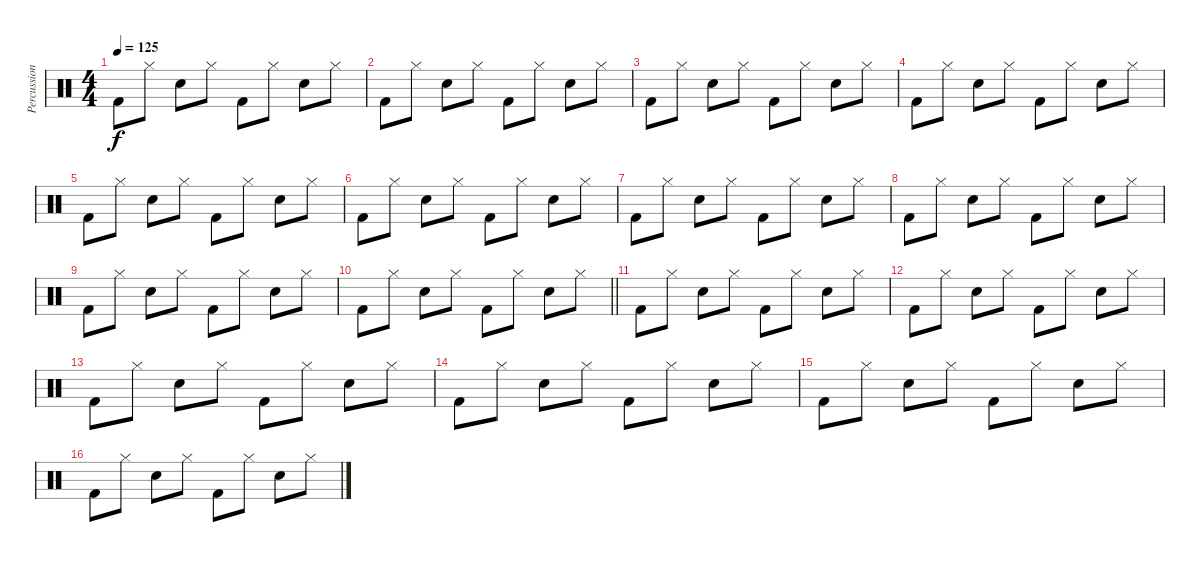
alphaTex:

\track ("Percussion" "Percussion") {instrument percussion}
\staff {score}
\articulation defaults
\ts (4 4)
\tempo 125
\clef neutral
\ks c "Kick (hit) 2".8{dy f} "Hi-Hat (closed)".8 "Snare (hit) 2".8 "Hi-Hat (closed)".8 "Kick (hit) 2".8 "Hi-Hat (closed)".8 "Snare (hit) 2".8 "Hi-Hat (closed)".8
|
"Kick (hit) 2".8 "Hi-Hat (closed)".8 "Snare (hit) 2".8 "Hi-Hat (closed)".8 "Kick (hit) 2".8 "Hi-Hat (closed)".8 "Snare (hit) 2".8 "Hi-Hat (closed)".8 |
"Kick (hit) 2".8 "Hi-Hat (closed)".8 "Snare (hit) 2".8 "Hi-Hat (closed)".8 "Kick (hit) 2".8 "Hi-Hat (closed)".8 "Snare (hit) 2".8 "Hi-Hat (closed)".8 |
"Kick (hit) 2".8 "Hi-Hat (closed)".8 "Snare (hit) 2".8 "Hi-Hat (closed)".8 "Kick (hit) 2".8 "Hi-Hat (closed)".8 "Snare (hit) 2".8 "Hi-Hat (closed)".8 |
"Kick (hit) 2".8 "Hi-Hat (closed)".8 "Snare (hit) 2".8 "Hi-Hat (closed)".8 "Kick (hit) 2".8 "Hi-Hat (closed)".8 "Snare (hit) 2".8 "Hi-Hat (closed)".8 |
"Kick (hit) 2".8 "Hi-Hat (closed)".8 "Snare (hit) 2".8 "Hi-Hat (closed)".8 "Kick (hit) 2".8 "Hi-Hat (closed)".8 "Snare (hit) 2".8 "Hi-Hat (closed)".8 |
"Kick (hit) 2".8 "Hi-Hat (closed)".8 "Snare (hit) 2".8 "Hi-Hat (closed)".8 "Kick (hit) 2".8 "Hi-Hat (closed)".8 "Snare (hit) 2".8 "Hi-Hat (closed)".8 |
"Kick (hit) 2".8 "Hi-Hat (closed)".8 "Snare (hit) 2".8 "Hi-Hat (closed)".8 "Kick (hit) 2".8 "Hi-Hat (closed)".8 "Snare (hit) 2".8 "Hi-Hat (closed)".8 |
"Kick (hit) 2".8 "Hi-Hat (closed)".8 "Snare (hit) 2".8 "Hi-Hat (closed)".8 "Kick (hit) 2".8 "Hi-Hat (closed)".8 "Snare (hit) 2".8 "Hi-Hat (closed)".8 |
\barLineRight lightlight "Kick (hit) 2".8 "Hi-Hat (closed)".8 "Snare (hit) 2".8 "Hi-Hat (closed)".8 "Kick (hit) 2".8 "Hi-Hat (closed)".8 "Snare (hit) 2".8 "Hi-Hat (closed)".8
|
"Kick (hit) 2".8 "Hi-Hat (closed)".8 "Snare (hit) 2".8 "Hi-Hat (closed)".8 "Kick (hit) 2".8 "Hi-Hat (closed)".8 "Snare (hit) 2".8 "Hi-Hat (closed)".8 |
"Kick (hit) 2".8 "Hi-Hat (closed)".8 "Snare (hit) 2".8 "Hi-Hat (closed)".8 "Kick (hit) 2".8 "Hi-Hat (closed)".8 "Snare (hit) 2".8 "Hi-Hat (closed)".8 |
"Kick (hit) 2".8 "Hi-Hat (closed)".8 "Snare (hit) 2".8 "Hi-Hat (closed)".8 "Kick (hit) 2".8 "Hi-Hat (closed)".8 "Snare (hit) 2".8 "Hi-Hat (closed)".8 |
"Kick (hit) 2".8 "Hi-Hat (closed)".8 "Snare (hit) 2".8 "Hi-Hat (closed)".8 "Kick (hit) 2".8 "Hi-Hat (closed)".8 "Snare (hit) 2".8 "Hi-Hat (closed)".8 |
"Kick (hit) 2".8 "Hi-Hat (closed)".8 "Snare (hit) 2".8 "Hi-Hat (closed)".8 "Kick (hit) 2".8 "Hi-Hat (closed)".8 "Snare (hit) 2".8 "Hi-Hat (closed)".8 |
"Kick (hit) 2".8 "Hi-Hat (closed)".8 "Snare (hit) 2".8 "Hi-Hat (closed)".8 "Kick (hit) 2".8 "Hi-Hat (closed)".8 "Snare (hit) 2".8 "Hi-Hat (closed)".8
